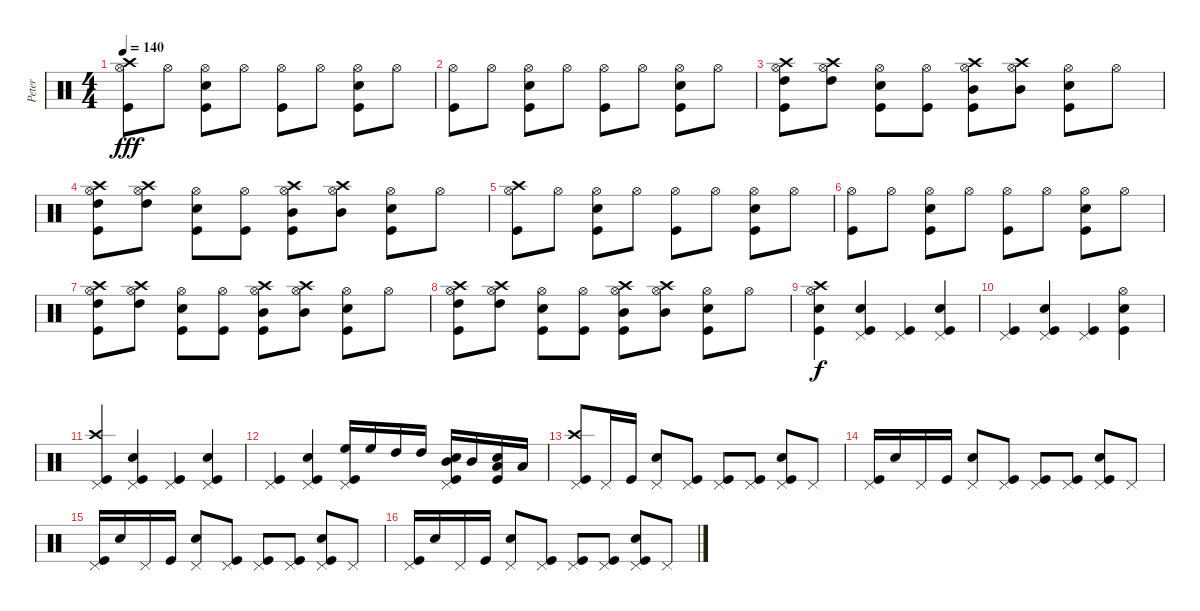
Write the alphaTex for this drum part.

\track ("Peter" "Peter") {instrument percussion}
\staff {score}
\articulation defaults
\ts (4 4)
\tempo 140
\clef neutral
\ks c
("Hi-Hat (open)" "Kick (hit)" "Crash high (hit)").8{dy fff} "Hi-Hat (open)".8 ("Hi-Hat (open)" "Kick (hit)" "Snare (hit) 2").8 "Hi-Hat (open)".8 ("Kick (hit)" "Hi-Hat (open)").8 "Hi-Hat (open)".8 ("Hi-Hat (open)" "Snare (hit) 2" "Kick (hit)").8 "Hi-Hat (open)".8 |
("Hi-Hat (open)" "Kick (hit)").8 "Hi-Hat (open)".8 ("Hi-Hat (open)" "Kick (hit)" "Snare (hit) 2").8 "Hi-Hat (open)".8 ("Kick (hit)" "Hi-Hat (open)").8 "Hi-Hat (open)".8 ("Hi-Hat (open)" "Snare (hit) 2" "Kick (hit)").8 "Hi-Hat (open)".8 |
("Crash high (hit)" "High Tom (hit)" "Hi-Hat (open)" "Kick (hit)").8 ("Crash high (hit)" "Hi-Hat (open)" "High Tom (hit)").8 ("Hi-Hat (open)" "Kick (hit)" "Snare (hit) 2").8 ("Kick (hit)" "Hi-Hat (open)").8 ("Mid Tom (hit)" "Crash high (hit)" "Kick (hit)" "Hi-Hat (open)").8 ("Mid Tom (hit)" "Crash high (hit)" "Hi-Hat (open)").8 ("Hi-Hat (open)" "Snare (hit) 2" "Kick (hit)").8 "Hi-Hat (open)".8 |
("Crash high (hit)" "High Tom (hit)" "Hi-Hat (open)" "Kick (hit)").8 ("Crash high (hit)" "Hi-Hat (open)" "High Tom (hit)").8 ("Hi-Hat (open)" "Kick (hit)" "Snare (hit) 2").8 ("Kick (hit)" "Hi-Hat (open)").8 ("Mid Tom (hit)" "Crash high (hit)" "Kick (hit)" "Hi-Hat (open)").8 ("Mid Tom (hit)" "Crash high (hit)" "Hi-Hat (open)").8 ("Hi-Hat (open)" "Snare (hit) 2" "Kick (hit)").8 "Hi-Hat (open)".8 |
("Hi-Hat (open)" "Kick (hit)" "Crash high (hit)").8 "Hi-Hat (open)".8 ("Hi-Hat (open)" "Kick (hit)" "Snare (hit) 2").8 "Hi-Hat (open)".8 ("Kick (hit)" "Hi-Hat (open)").8 "Hi-Hat (open)".8 ("Hi-Hat (open)" "Snare (hit) 2" "Kick (hit)").8 "Hi-Hat (open)".8 |
("Hi-Hat (open)" "Kick (hit)").8 "Hi-Hat (open)".8 ("Hi-Hat (open)" "Kick (hit)" "Snare (hit) 2").8 "Hi-Hat (open)".8 ("Kick (hit)" "Hi-Hat (open)").8 "Hi-Hat (open)".8 ("Hi-Hat (open)" "Snare (hit) 2" "Kick (hit)").8 "Hi-Hat (open)".8 |
("Crash high (hit)" "High Tom (hit)" "Hi-Hat (open)" "Kick (hit)").8 ("Crash high (hit)" "Hi-Hat (open)" "High Tom (hit)").8 ("Hi-Hat (open)" "Kick (hit)" "Snare (hit) 2").8 ("Kick (hit)" "Hi-Hat (open)").8 ("Mid Tom (hit)" "Crash high (hit)" "Kick (hit)" "Hi-Hat (open)").8 ("Mid Tom (hit)" "Crash high (hit)" "Hi-Hat (open)").8 ("Hi-Hat (open)" "Snare (hit) 2" "Kick (hit)").8 "Hi-Hat (open)".8 |
("Crash high (hit)" "High Tom (hit)" "Hi-Hat (open)" "Kick (hit)").8 ("Crash high (hit)" "Hi-Hat (open)" "High Tom (hit)").8 ("Hi-Hat (open)" "Kick (hit)" "Snare (hit) 2").8 ("Kick (hit)" "Hi-Hat (open)").8 ("Mid Tom (hit)" "Crash high (hit)" "Kick (hit)" "Hi-Hat (open)").8 ("Mid Tom (hit)" "Crash high (hit)" "Hi-Hat (open)").8 ("Hi-Hat (open)" "Snare (hit) 2" "Kick (hit)").8 "Hi-Hat (open)".8 |
("Snare (hit) 2" "Hi-Hat (open)" "Kick (hit)" "Crash high (hit)").4{dy f} ("Pedal Hi-Hat (hit)" "Snare (hit) 2" "Kick (hit)").4 ("Pedal Hi-Hat (hit)" "Kick (hit)").4 ("Kick (hit)" "Snare (hit) 2" "Pedal Hi-Hat (hit)").4 |
("Kick (hit)" "Pedal Hi-Hat (hit)").4 ("Pedal Hi-Hat (hit)" "Snare (hit) 2" "Kick (hit)").4 ("Pedal Hi-Hat (hit)" "Kick (hit)").4 ("Snare (hit) 2" "Hi-Hat (open)" "Kick (hit)").4 |
("Crash high (hit)" "Kick (hit)" "Pedal Hi-Hat (hit)").4 ("Kick (hit)" "Snare (hit) 2" "Pedal Hi-Hat (hit)").4 ("Kick (hit)" "Pedal Hi-Hat (hit)").4 ("Pedal Hi-Hat (hit)" "Kick (hit)" "Snare (hit) 2").4 |
("Pedal Hi-Hat (hit)" "Kick (hit)").4 ("Pedal Hi-Hat (hit)" "Snare (hit) 2" "Kick (hit)").4 ("High Floor Tom (hit)" "Pedal Hi-Hat (hit)" "Kick (hit)").16 "High Floor Tom (hit)".16 "High Tom (hit)".16 "High Tom (hit)".16 ("Mid Tom (hit)" "Pedal Hi-Hat (hit)" "Kick (hit)" "Snare (hit) 2").16 "Mid Tom (hit)".16 ("Low Tom (hit)" "Kick (hit)" "Snare (hit) 2").16 "Low Tom (hit)".16 |
("Crash high (hit)" "Kick (hit)" "Pedal Hi-Hat (hit)").8 "Pedal Hi-Hat (hit)".16 "Kick (hit)".16 ("Pedal Hi-Hat (hit)" "Electric Snare (hit)").8 ("Pedal Hi-Hat (hit)" "Kick (hit)").8 ("Kick (hit)" "Pedal Hi-Hat (hit)").8 ("Pedal Hi-Hat (hit)" "Kick (hit)").8 ("Kick (hit)" "Pedal Hi-Hat (hit)" "Electric Snare (hit)").8 "Pedal Hi-Hat (hit)".8 |
("Kick (hit)" "Pedal Hi-Hat (hit)").16 "Electric Snare (hit)".16 "Pedal Hi-Hat (hit)".16 "Kick (hit)".16 ("Pedal Hi-Hat (hit)" "Electric Snare (hit)").8 ("Pedal Hi-Hat (hit)" "Kick (hit)").8 ("Pedal Hi-Hat (hit)" "Kick (hit)").8 ("Kick (hit)" "Pedal Hi-Hat (hit)").8 ("Pedal Hi-Hat (hit)" "Kick (hit)" "Electric Snare (hit)").8 "Pedal Hi-Hat (hit)".8 |
("Kick (hit)" "Pedal Hi-Hat (hit)").16 "Electric Snare (hit)".16 "Pedal Hi-Hat (hit)".16 "Kick (hit)".16 ("Pedal Hi-Hat (hit)" "Electric Snare (hit)").8 ("Kick (hit)" "Pedal Hi-Hat (hit)").8 ("Pedal Hi-Hat (hit)" "Kick (hit)").8 ("Pedal Hi-Hat (hit)" "Kick (hit)").8 ("Pedal Hi-Hat (hit)" "Electric Snare (hit)" "Kick (hit)").8 "Pedal Hi-Hat (hit)".8 |
("Kick (hit)" "Pedal Hi-Hat (hit)").16 "Electric Snare (hit)".16 "Pedal Hi-Hat (hit)".16 "Kick (hit)".16 ("Pedal Hi-Hat (hit)" "Electric Snare (hit)").8 ("Pedal Hi-Hat (hit)" "Kick (hit)").8 ("Kick (hit)" "Pedal Hi-Hat (hit)").8 ("Kick (hit)" "Pedal Hi-Hat (hit)").8 ("Electric Snare (hit)" "Kick (hit)" "Pedal Hi-Hat (hit)").8 "Pedal Hi-Hat (hit)".8
